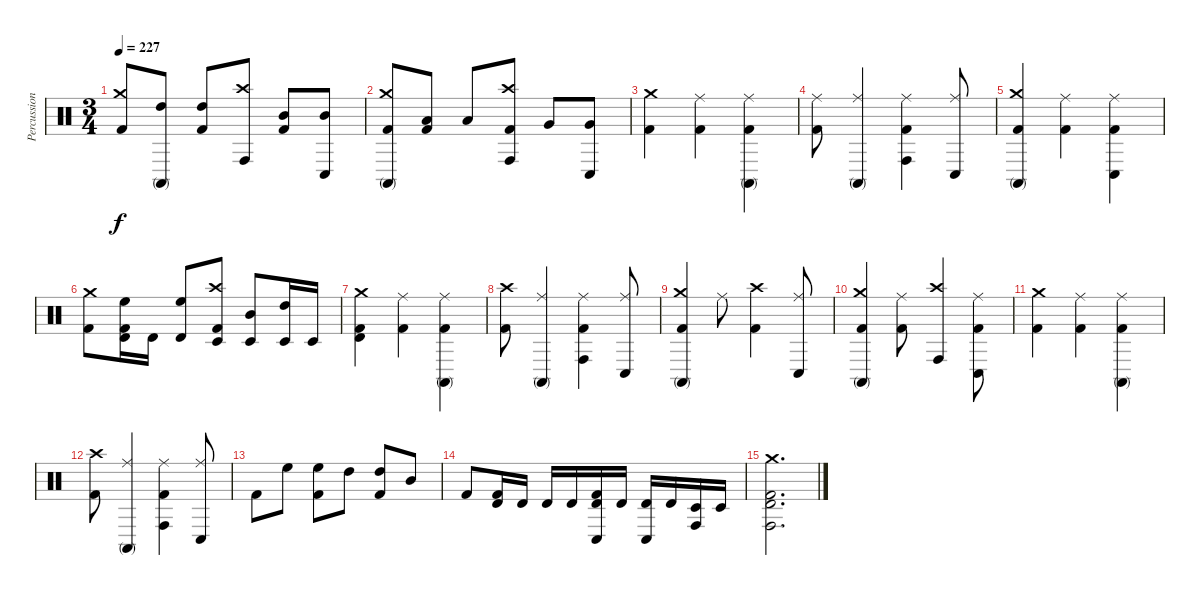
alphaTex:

\track ("Percussion" "Percussion") {instrument percussion}
\staff {score}
\articulation defaults
\ts (3 4)
\tempo 227
\clef neutral
\ks c
("Crash medium (hit)" "Kick (hit) 2").8{dy f} ("Conga high (mute)" "High Tom (hit)").8 ("High Tom (hit)" "Kick (hit) 2").8 ("Crash high (hit)" "Conga high (hit)").8 ("Mid Tom (hit)" "Kick (hit) 2").8 ("Conga low (hit)" "Mid Tom (hit)").8 |
("Crash medium (hit)" "Conga high (mute)" "Kick (hit) 2").8 ("Low Tom (hit)" "Kick (hit) 2").8 "Low Tom (hit)".8 ("Crash high (hit)" "Conga high (hit)" "Kick (hit) 2").8 "Very Low Tom (hit)".8 ("Conga low (hit)" "Very Low Tom (hit)").8 |
("Crash medium (hit)" "Kick (hit) 2").4 ("Ride (middle)" "Kick (hit) 2").4 ("Ride (middle)" "Conga high (mute)" "Kick (hit) 2").4 |
("Ride (middle)" "Kick (hit) 2").8 ("Ride (middle)" "Conga high (mute)").4 ("Ride (middle)" "Conga high (hit)" "Kick (hit) 2").4 ("Ride (middle)" "Conga low (hit)").8 |
("Crash medium (hit)" "Conga high (mute)" "Kick (hit) 2").4 ("Ride (middle)" "Kick (hit) 2").4 ("Ride (middle)" "Conga low (hit)" "Kick (hit) 2").4 |
("Crash medium (hit)" "Kick (hit) 2").8 ("Timbale high (hit)" "High Floor Tom (hit)" "Kick (hit) 2").16 "Timbale high (hit)".16 ("Timbale high (hit)" "High Floor Tom (hit)").8 ("Timbale low (hit)" "Crash high (hit)" "Kick (hit) 2").8 ("Timbale low (hit)" "Mid Tom (hit)").8 ("Timbale low (hit)" "High Tom (hit)").16 "Timbale low (hit)".16 |
("Crash medium (hit)" "Timbale high (hit)" "Kick (hit) 2").4 ("Ride (middle)" "Kick (hit) 2").4 ("Ride (middle)" "Conga high (mute)" "Kick (hit) 2").4 |
("Crash high (hit)" "Kick (hit) 2").8 ("Ride (middle)" "Conga high (mute)").4 ("Ride (middle)" "Conga high (hit)" "Kick (hit) 2").4 ("Ride (middle)" "Conga low (hit)").8 |
("Crash medium (hit)" "Conga high (mute)" "Kick (hit) 2").4 "Ride (middle)".8 ("Crash high (hit)" "Kick (hit) 2").4 ("Ride (middle)" "Conga low (hit)").8 |
("Crash medium (hit)" "Conga high (mute)" "Kick (hit) 2").4 ("Ride (middle)" "Kick (hit) 2").8 ("Crash high (hit)" "Conga high (hit)").4 ("Ride (middle)" "Conga low (hit)" "Kick (hit) 2").8 |
("Crash medium (hit)" "Kick (hit) 2").4 ("Ride (middle)" "Kick (hit) 2").4 ("Ride (middle)" "Conga high (mute)" "Kick (hit) 2").4 |
("Crash high (hit)" "Kick (hit) 2").8 ("Ride (middle)" "Conga high (mute)").4 ("Ride (middle)" "Conga high (hit)" "Kick (hit) 2").4 ("Ride (middle)" "Conga low (hit)").8 |
"Kick (hit) 2".8 "High Floor Tom (hit)".8 ("High Floor Tom (hit)" "Kick (hit) 2").8 "High Tom (hit)".8 ("High Tom (hit)" "Kick (hit) 2").8 "Mid Tom (hit)".8 |
"Kick (hit) 2".8 ("Timbale high (hit)" "Kick (hit) 2").16 "Timbale high (hit)".16 "Timbale high (hit)".16 "Timbale high (hit)".16 ("Timbale high (hit)" "Conga low (hit)" "Kick (hit) 2").16 "Timbale high (hit)".16 ("Timbale high (hit)" "Conga low (hit)").16 "Timbale high (hit)".16 ("Timbale low (hit)" "Conga high (hit)").16 "Timbale low (hit)".16 |
("Timbale high (hit)" "Conga high (hit)" "Crash medium (hit)" "Kick (hit) 2").2{d}
